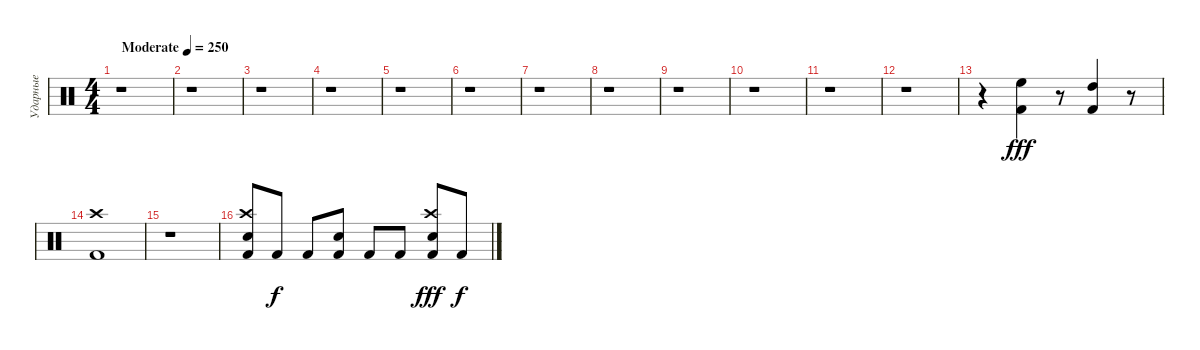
\track ("Ударные" "Ударные") {instrument percussion}
\staff {score}
\articulation defaults
\ts (4 4)
\tempo (250 "Moderate")
\clef neutral
\ks c
r.1{dy fff} |
r.1 |
r.1 |
r.1 |
r.1 |
r.1 |
r.1 |
r.1 |
r.1 |
r.1 |
r.1 |
r.1 |
r.4 ("Kick (hit) 2" "High Floor Tom (hit)").4 r.8 ("Kick (hit) 2" "High Tom (hit)").4 r.8 |
("Kick (hit) 2" "Crash high (hit)").1 |
r.1 |
("Kick (hit) 2" "Snare (hit) 2" "Crash high (hit)").8 "Kick (hit) 2".8{dy f} "Kick (hit) 2".8 ("Kick (hit) 2" "Snare (hit) 2").8 "Kick (hit) 2".8 "Kick (hit) 2".8 ("Kick (hit) 2" "Snare (hit) 2" "Crash high (hit)").8{dy fff} "Kick (hit) 2".8{dy f}
